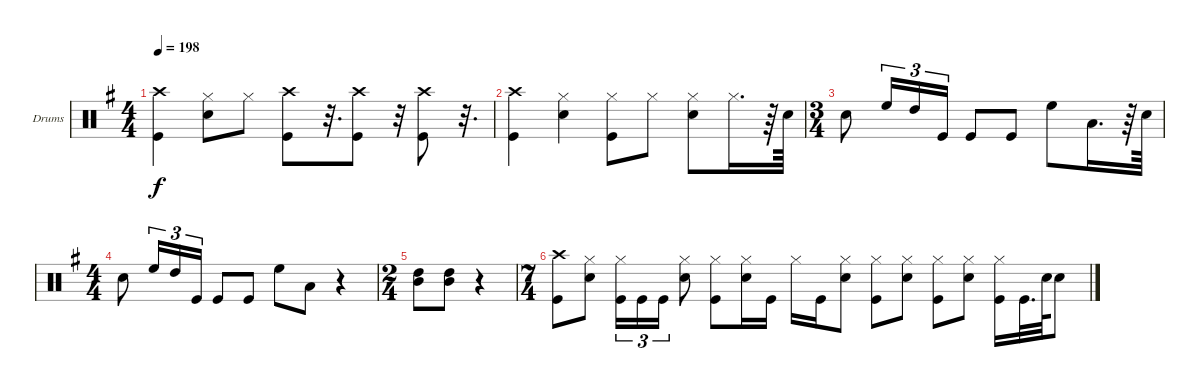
\defaultSystemsLayout 4
\bracketExtendMode groupsimilarinstruments
\firstSystemTrackNameOrientation horizontal
\otherSystemsTrackNameOrientation horizontal
\track ("Drumkit" "Drums") {instrument percussion}
\staff {score}
\articulation defaults
\ts (4 4)
\tempo 198
\clef neutral
\ks g
("Kick (hit)" "Crash high (hit)").4{dy f} ("Hi-Hat (closed)" "Snare (hit) 2").8 "Hi-Hat (closed)".8 ("Kick (hit)" "Crash high (hit)").8 r.32{d} ("Kick (hit)" "Crash high (hit)").8 r.32 ("Kick (hit)" "Crash high (hit)").8 r.32{d} |
("Kick (hit)" "Crash high (hit)").4 ("Hi-Hat (closed)" "Snare (hit) 2").4 ("Hi-Hat (closed)" "Kick (hit)").8 "Hi-Hat (closed)".8 ("Snare (hit) 2" "Hi-Hat (closed)").8 "Hi-Hat (closed)".16{d} r.64 "Snare (hit) 2".64 |
\ts (3 4)
"Snare (hit) 2".8 "High Floor Tom (hit)".16{tu (3 2)} "High Tom (hit)".16{tu (3 2)} "Kick (hit)".16{tu (3 2)} "Kick (hit)".8 "Kick (hit)".8 "High Floor Tom (hit)".8 "Low Tom (hit)".16{d} r.64 "Snare (hit) 2".64 |
\ts (4 4)
"Snare (hit) 2".8 "High Floor Tom (hit)".16{tu (3 2)} "High Tom (hit)".16{tu (3 2)} "Kick (hit)".16{tu (3 2)} "Kick (hit)".8 "Kick (hit)".8 "High Floor Tom (hit)".8 "Low Tom (hit)".8 r.4 |
\ts (2 4)
("High Tom (hit)" "Mid Tom (hit)").8 ("High Tom (hit)" "Mid Tom (hit)").8 r.4 |
\ts (7 4)
("Crash high (hit)" "Kick (hit)").8 ("Snare (hit) 2" "Hi-Hat (closed)").8 ("Hi-Hat (closed)" "Kick (hit)").16{tu (3 2)} "Kick (hit)".16{tu (3 2)} "Kick (hit)".16{tu (3 2)} ("Snare (hit) 2" "Hi-Hat (closed)").8 ("Hi-Hat (closed)" "Kick (hit)").8 ("Snare (hit) 2" "Hi-Hat (closed)").16 "Kick (hit)".16 "Hi-Hat (closed)".16 "Kick (hit)".16 ("Snare (hit) 2" "Hi-Hat (closed)").8 ("Hi-Hat (closed)" "Kick (hit)").8 ("Snare (hit) 2" "Hi-Hat (closed)").8 ("Hi-Hat (closed)" "Kick (hit)").8 ("Snare (hit) 2" "Hi-Hat (closed)").8 ("Hi-Hat (closed)" "Kick (hit)").16 "Kick (hit)".32{d} "Snare (hit) 2".64 "Snare (hit) 2".8
